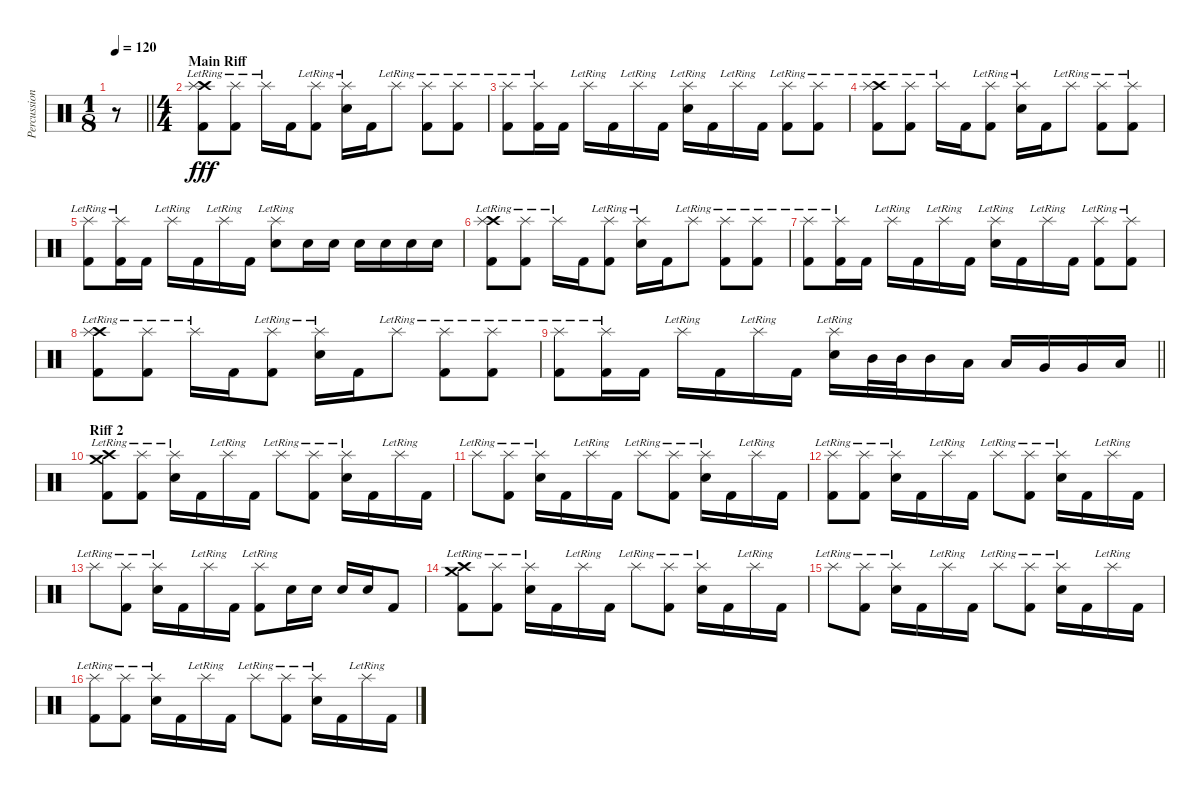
\track ("Percussions" "Percussion") {instrument percussion}
\staff {score}
\articulation defaults
\ts (1 8)
\tempo 120
\clef neutral
\barLineRight lightlight
\ks c
r.8{dy fff} |
\ts (4 4)
\section ("" "Main Riff")
("Crash high (hit)"{lr} "Splash (hit)"{lr} "Kick (hit) 2").8 ("Splash (hit)"{lr} "Kick (hit) 2").8 "Splash (hit)"{lr}.16 "Kick (hit) 2".16 ("Splash (hit)"{lr} "Kick (hit) 2").8 ("Splash (hit)"{lr} "Electric Snare (hit)").16 "Kick (hit) 2".16 "Splash (hit)"{lr}.8 ("Splash (hit)"{lr} "Kick (hit) 2").8 ("Splash (hit)"{lr} "Kick (hit) 2").8 |
("Splash (hit)"{lr} "Kick (hit) 2").8 ("Splash (hit)"{lr} "Kick (hit) 2").16 "Kick (hit) 2".16 "Splash (hit)"{lr}.16 "Kick (hit) 2".16 "Splash (hit)"{lr}.16 "Kick (hit) 2".16 ("Splash (hit)"{lr} "Electric Snare (hit)").16 "Kick (hit) 2".16 "Splash (hit)"{lr}.16 "Kick (hit) 2".16 ("Splash (hit)"{lr} "Kick (hit) 2").8 ("Splash (hit)"{lr} "Kick (hit) 2").8 |
("Crash high (hit)"{lr} "Splash (hit)"{lr} "Kick (hit) 2").8 ("Splash (hit)"{lr} "Kick (hit) 2").8 "Splash (hit)"{lr}.16 "Kick (hit) 2".16 ("Splash (hit)"{lr} "Kick (hit) 2").8 ("Splash (hit)"{lr} "Electric Snare (hit)").16 "Kick (hit) 2".16 "Splash (hit)"{lr}.8 ("Splash (hit)"{lr} "Kick (hit) 2").8 ("Splash (hit)"{lr} "Kick (hit) 2").8 |
("Splash (hit)"{lr} "Kick (hit) 2").8 ("Splash (hit)"{lr} "Kick (hit) 2").16 "Kick (hit) 2".16 "Splash (hit)"{lr}.16 "Kick (hit) 2".16 "Splash (hit)"{lr}.16 "Kick (hit) 2".16 ("Splash (hit)"{lr} "Electric Snare (hit)").8 "Electric Snare (hit)".16 "Electric Snare (hit)".16 "Electric Snare (hit)".16 "Electric Snare (hit)".16 "Electric Snare (hit)".16 "Electric Snare (hit)".16 |
("Crash high (hit)"{lr} "Splash (hit)"{lr} "Kick (hit) 2").8 ("Splash (hit)"{lr} "Kick (hit) 2").8 "Splash (hit)"{lr}.16 "Kick (hit) 2".16 ("Splash (hit)"{lr} "Kick (hit) 2").8 ("Splash (hit)"{lr} "Electric Snare (hit)").16 "Kick (hit) 2".16 "Splash (hit)"{lr}.8 ("Splash (hit)"{lr} "Kick (hit) 2").8 ("Splash (hit)"{lr} "Kick (hit) 2").8 |
("Splash (hit)"{lr} "Kick (hit) 2").8 ("Splash (hit)"{lr} "Kick (hit) 2").16 "Kick (hit) 2".16 "Splash (hit)"{lr}.16 "Kick (hit) 2".16 "Splash (hit)"{lr}.16 "Kick (hit) 2".16 ("Splash (hit)"{lr} "Electric Snare (hit)").16 "Kick (hit) 2".16 "Splash (hit)"{lr}.16 "Kick (hit) 2".16 ("Splash (hit)"{lr} "Kick (hit) 2").8 ("Splash (hit)"{lr} "Kick (hit) 2").8 |
("Crash high (hit)"{lr} "Splash (hit)"{lr} "Kick (hit) 2").8 ("Splash (hit)"{lr} "Kick (hit) 2").8 "Splash (hit)"{lr}.16 "Kick (hit) 2".16 ("Splash (hit)"{lr} "Kick (hit) 2").8 ("Splash (hit)"{lr} "Electric Snare (hit)").16 "Kick (hit) 2".16 "Splash (hit)"{lr}.8 ("Splash (hit)"{lr} "Kick (hit) 2").8 ("Splash (hit)"{lr} "Kick (hit) 2").8 |
\barLineRight lightlight
("Splash (hit)"{lr} "Kick (hit) 2").8 ("Splash (hit)"{lr} "Kick (hit) 2").16 "Kick (hit) 2".16 "Splash (hit)"{lr}.16 "Kick (hit) 2".16 "Splash (hit)"{lr}.16 "Kick (hit) 2".16 ("Splash (hit)"{lr} "Electric Snare (hit)").16 "Mid Tom (hit)".32 "Mid Tom (hit)".32 "Mid Tom (hit)".16 "Low Tom (hit)".16 "Low Tom (hit)".16 "Very Low Tom (hit)".16 "Very Low Tom (hit)".16 "Low Floor Tom (hit)".16 |
\section ("" "Riff 2")
("Crash high (hit)"{lr} "Crash medium (hit)"{lr} "Kick (hit) 2").8 ("Splash (hit)"{lr} "Kick (hit) 2").8 ("Splash (hit)"{lr} "Electric Snare (hit)").16 "Kick (hit) 2".16 "Splash (hit)"{lr}.16 "Kick (hit) 2".16 "Splash (hit)"{lr}.8 ("Splash (hit)"{lr} "Kick (hit) 2").8 ("Splash (hit)"{lr} "Electric Snare (hit)").16 "Kick (hit) 2".16 "Splash (hit)"{lr}.16 "Kick (hit) 2".16 |
"Splash (hit)"{lr}.8 ("Splash (hit)"{lr} "Kick (hit) 2").8 ("Splash (hit)"{lr} "Electric Snare (hit)").16 "Kick (hit) 2".16 "Splash (hit)"{lr}.16 "Kick (hit) 2".16 "Splash (hit)"{lr}.8 ("Splash (hit)"{lr} "Kick (hit) 2").8 ("Splash (hit)"{lr} "Electric Snare (hit)").16 "Kick (hit) 2".16 "Splash (hit)"{lr}.16 "Kick (hit) 2".16 |
("Splash (hit)"{lr} "Kick (hit) 2").8 ("Splash (hit)"{lr} "Kick (hit) 2").8 ("Splash (hit)"{lr} "Electric Snare (hit)").16 "Kick (hit) 2".16 "Splash (hit)"{lr}.16 "Kick (hit) 2".16 "Splash (hit)"{lr}.8 ("Splash (hit)"{lr} "Kick (hit) 2").8 ("Splash (hit)"{lr} "Electric Snare (hit)").16 "Kick (hit) 2".16 "Splash (hit)"{lr}.16 "Kick (hit) 2".16 |
"Splash (hit)"{lr}.8 ("Splash (hit)"{lr} "Kick (hit) 2").8 ("Splash (hit)"{lr} "Electric Snare (hit)").16 "Kick (hit) 2".16 "Splash (hit)"{lr}.16 "Kick (hit) 2".16 ("Splash (hit)"{lr} "Kick (hit) 2").8 "Electric Snare (hit)".16 "Electric Snare (hit)".16 "Electric Snare (hit)".16 "Electric Snare (hit)".16 "Kick (hit) 2".8 |
("Crash high (hit)"{lr} "Crash medium (hit)"{lr} "Kick (hit) 2").8 ("Splash (hit)"{lr} "Kick (hit) 2").8 ("Splash (hit)"{lr} "Electric Snare (hit)").16 "Kick (hit) 2".16 "Splash (hit)"{lr}.16 "Kick (hit) 2".16 "Splash (hit)"{lr}.8 ("Splash (hit)"{lr} "Kick (hit) 2").8 ("Splash (hit)"{lr} "Electric Snare (hit)").16 "Kick (hit) 2".16 "Splash (hit)"{lr}.16 "Kick (hit) 2".16 |
"Splash (hit)"{lr}.8 ("Splash (hit)"{lr} "Kick (hit) 2").8 ("Splash (hit)"{lr} "Electric Snare (hit)").16 "Kick (hit) 2".16 "Splash (hit)"{lr}.16 "Kick (hit) 2".16 "Splash (hit)"{lr}.8 ("Splash (hit)"{lr} "Kick (hit) 2").8 ("Splash (hit)"{lr} "Electric Snare (hit)").16 "Kick (hit) 2".16 "Splash (hit)"{lr}.16 "Kick (hit) 2".16 |
("Splash (hit)"{lr} "Kick (hit) 2").8 ("Splash (hit)"{lr} "Kick (hit) 2").8 ("Splash (hit)"{lr} "Electric Snare (hit)").16 "Kick (hit) 2".16 "Splash (hit)"{lr}.16 "Kick (hit) 2".16 "Splash (hit)"{lr}.8 ("Splash (hit)"{lr} "Kick (hit) 2").8 ("Splash (hit)"{lr} "Electric Snare (hit)").16 "Kick (hit) 2".16 "Splash (hit)"{lr}.16 "Kick (hit) 2".16
